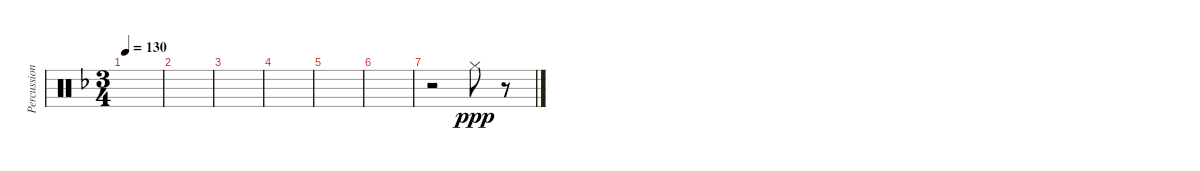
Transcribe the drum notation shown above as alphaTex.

\track ("Percussions" "Percussion") {instrument percussion}
\staff {score}
\articulation defaults
\ts (3 4)
\tempo 130
\clef neutral
\ks dminor
|
|
|
|
|
|
r.2 "Hi-Hat (closed)".8{dy ppp} r.8
